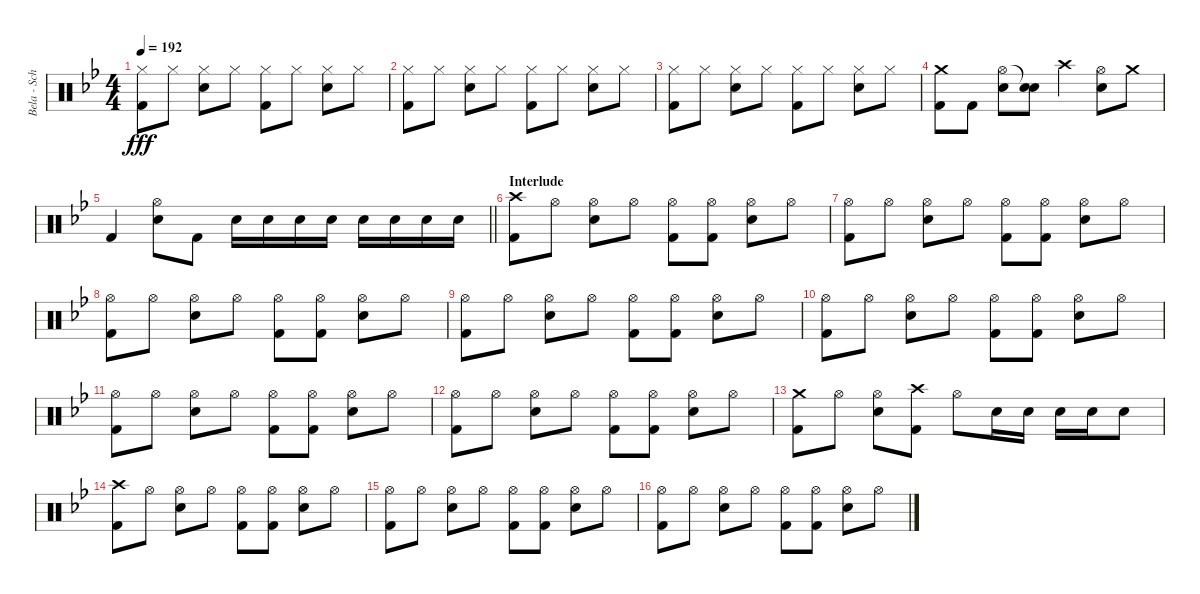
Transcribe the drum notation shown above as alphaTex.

\track ("Bela - Schlagzeug" "Bela - Sch") {instrument percussion}
\staff {score}
\articulation defaults
\ts (4 4)
\tempo 192
\clef neutral
\ks bb
("Hi-Hat (closed)" "Kick (hit) 2").8{dy fff} "Hi-Hat (closed)".8 ("Hi-Hat (closed)" "Snare (hit) 2").8 "Hi-Hat (closed)".8 ("Hi-Hat (closed)" "Kick (hit) 2").8 "Hi-Hat (closed)".8 ("Hi-Hat (closed)" "Snare (hit) 2").8 "Hi-Hat (closed)".8 |
("Hi-Hat (closed)" "Kick (hit) 2").8 "Hi-Hat (closed)".8 ("Hi-Hat (closed)" "Snare (hit) 2").8 "Hi-Hat (closed)".8 ("Hi-Hat (closed)" "Kick (hit) 2").8 "Hi-Hat (closed)".8 ("Hi-Hat (closed)" "Snare (hit) 2").8 "Hi-Hat (closed)".8 |
("Hi-Hat (closed)" "Kick (hit) 2").8 "Hi-Hat (closed)".8 ("Hi-Hat (closed)" "Snare (hit) 2").8 "Hi-Hat (closed)".8 ("Hi-Hat (closed)" "Kick (hit) 2").8 "Hi-Hat (closed)".8 ("Hi-Hat (closed)" "Snare (hit) 2").8 "Hi-Hat (closed)".8 |
("Crash medium (hit)" "Kick (hit) 2").8 "Kick (hit) 2".8 ("Hi-Hat (open)" "Snare (hit) 2").8 ("Snare (hit)"{t} "Snare (hit) 2").8 "Crash high (hit)".4 ("Hi-Hat (open)" "Snare (hit) 2").8 "Crash medium (hit)".8 |
\barLineRight lightlight "Kick (hit) 2".4
("Hi-Hat (open)" "Snare (hit) 2").8 "Kick (hit) 2".8 "Snare (hit) 2".16 "Snare (hit) 2".16 "Snare (hit) 2".16 "Snare (hit) 2".16 "Snare (hit) 2".16 "Snare (hit) 2".16 "Snare (hit) 2".16 "Snare (hit) 2".16 |
\section ("" "Interlude")
("Crash high (hit)" "Kick (hit) 2").8 "Hi-Hat (open)".8 ("Hi-Hat (open)" "Snare (hit) 2").8 "Hi-Hat (open)".8 ("Hi-Hat (open)" "Kick (hit) 2").8 ("Hi-Hat (open)" "Kick (hit) 2").8 ("Hi-Hat (open)" "Snare (hit) 2").8 "Hi-Hat (open)".8 |
("Hi-Hat (open)" "Kick (hit) 2").8 "Hi-Hat (open)".8 ("Hi-Hat (open)" "Snare (hit) 2").8 "Hi-Hat (open)".8 ("Hi-Hat (open)" "Kick (hit) 2").8 ("Hi-Hat (open)" "Kick (hit) 2").8 ("Hi-Hat (open)" "Snare (hit) 2").8 "Hi-Hat (open)".8 |
("Hi-Hat (open)" "Kick (hit) 2").8 "Hi-Hat (open)".8 ("Hi-Hat (open)" "Snare (hit) 2").8 "Hi-Hat (open)".8 ("Hi-Hat (open)" "Kick (hit) 2").8 ("Hi-Hat (open)" "Kick (hit) 2").8 ("Hi-Hat (open)" "Snare (hit) 2").8 "Hi-Hat (open)".8 |
("Hi-Hat (open)" "Kick (hit) 2").8 "Hi-Hat (open)".8 ("Hi-Hat (open)" "Snare (hit) 2").8 "Hi-Hat (open)".8 ("Hi-Hat (open)" "Kick (hit) 2").8 ("Hi-Hat (open)" "Kick (hit) 2").8 ("Hi-Hat (open)" "Snare (hit) 2").8 "Hi-Hat (open)".8 |
("Hi-Hat (open)" "Kick (hit) 2").8 "Hi-Hat (open)".8 ("Hi-Hat (open)" "Snare (hit) 2").8 "Hi-Hat (open)".8 ("Hi-Hat (open)" "Kick (hit) 2").8 ("Hi-Hat (open)" "Kick (hit) 2").8 ("Hi-Hat (open)" "Snare (hit) 2").8 "Hi-Hat (open)".8 |
("Hi-Hat (open)" "Kick (hit) 2").8 "Hi-Hat (open)".8 ("Hi-Hat (open)" "Snare (hit) 2").8 "Hi-Hat (open)".8 ("Hi-Hat (open)" "Kick (hit) 2").8 ("Hi-Hat (open)" "Kick (hit) 2").8 ("Hi-Hat (open)" "Snare (hit) 2").8 "Hi-Hat (open)".8 |
("Hi-Hat (open)" "Kick (hit) 2").8 "Hi-Hat (open)".8 ("Hi-Hat (open)" "Snare (hit) 2").8 "Hi-Hat (open)".8 ("Hi-Hat (open)" "Kick (hit) 2").8 ("Hi-Hat (open)" "Kick (hit) 2").8 ("Hi-Hat (open)" "Snare (hit) 2").8 "Hi-Hat (open)".8 |
("Crash medium (hit)" "Kick (hit) 2").8 "Hi-Hat (open)".8 ("Hi-Hat (open)" "Snare (hit) 2").8 ("Crash high (hit)" "Kick (hit) 2").8 "Hi-Hat (open)".8 "Snare (hit) 2".16 "Snare (hit) 2".16 "Snare (hit) 2".16 "Snare (hit) 2".16 "Snare (hit) 2".8 |
("Crash high (hit)" "Kick (hit) 2").8 "Hi-Hat (open)".8 ("Hi-Hat (open)" "Snare (hit) 2").8 "Hi-Hat (open)".8 ("Hi-Hat (open)" "Kick (hit) 2").8 ("Hi-Hat (open)" "Kick (hit) 2").8 ("Hi-Hat (open)" "Snare (hit) 2").8 "Hi-Hat (open)".8 |
("Hi-Hat (open)" "Kick (hit) 2").8 "Hi-Hat (open)".8 ("Hi-Hat (open)" "Snare (hit) 2").8 "Hi-Hat (open)".8 ("Hi-Hat (open)" "Kick (hit) 2").8 ("Hi-Hat (open)" "Kick (hit) 2").8 ("Hi-Hat (open)" "Snare (hit) 2").8 "Hi-Hat (open)".8 |
("Hi-Hat (open)" "Kick (hit) 2").8 "Hi-Hat (open)".8 ("Hi-Hat (open)" "Snare (hit) 2").8 "Hi-Hat (open)".8 ("Hi-Hat (open)" "Kick (hit) 2").8 ("Hi-Hat (open)" "Kick (hit) 2").8 ("Hi-Hat (open)" "Snare (hit) 2").8 "Hi-Hat (open)".8
